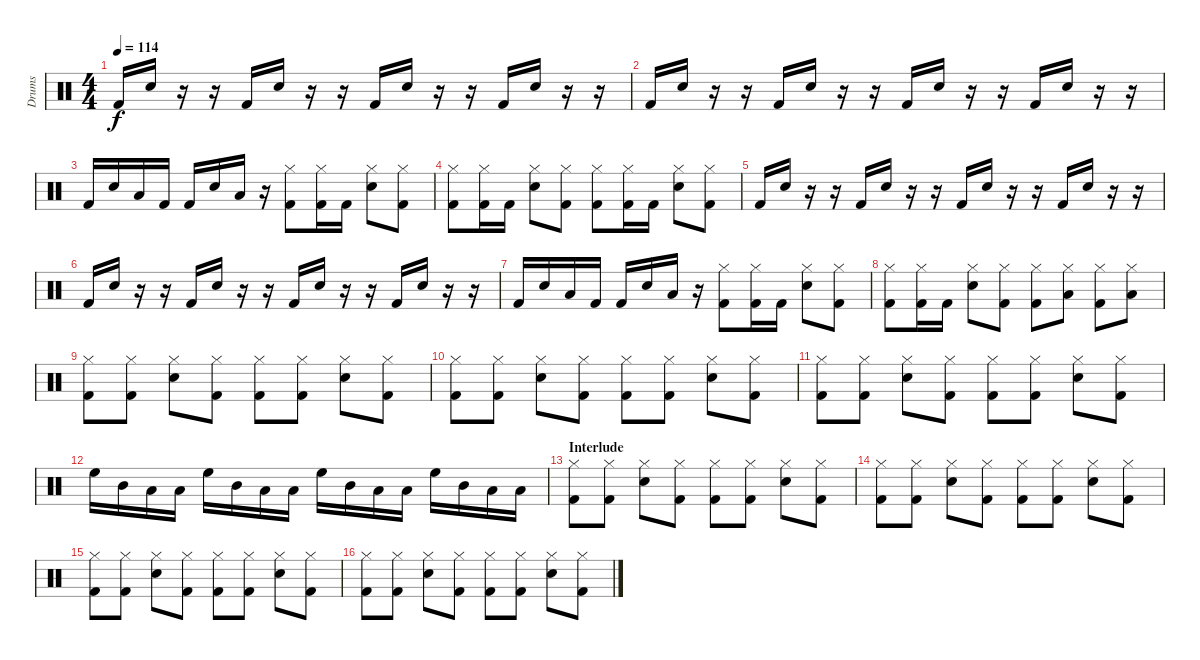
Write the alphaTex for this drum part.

\track ("Drums" "Drums") {instrument percussion}
\staff {score}
\articulation defaults
\ts (4 4)
\tempo 114
\clef neutral
\ks c "Kick (hit) 2".16{dy f} "Snare (hit) 2".16
r.16 r.16 "Kick (hit) 2".16 "Snare (hit) 2".16 r.16 r.16 "Kick (hit) 2".16 "Snare (hit) 2".16 r.16 r.16 "Kick (hit) 2".16 "Snare (hit) 2".16 r.16 r.16 |
"Kick (hit) 2".16 "Snare (hit) 2".16 r.16 r.16 "Kick (hit) 2".16 "Snare (hit) 2".16 r.16 r.16 "Kick (hit) 2".16 "Snare (hit) 2".16 r.16 r.16 "Kick (hit) 2".16 "Snare (hit) 2".16 r.16 r.16 |
"Kick (hit) 2".16 "Snare (hit) 2".16 "Low Tom (hit)".16 "Kick (hit) 2".16 "Kick (hit) 2".16 "Snare (hit) 2".16 "Low Floor Tom (hit)".16 r.16 ("Hi-Hat (closed)" "Kick (hit) 2").8 ("Hi-Hat (closed)" "Kick (hit) 2").16 "Kick (hit) 2".16 ("Hi-Hat (closed)" "Snare (hit) 2").8 ("Hi-Hat (closed)" "Kick (hit) 2").8 |
("Hi-Hat (closed)" "Kick (hit) 2").8 ("Hi-Hat (closed)" "Kick (hit) 2").16 "Kick (hit) 2".16 ("Hi-Hat (closed)" "Snare (hit) 2").8 ("Hi-Hat (closed)" "Kick (hit) 2").8 ("Hi-Hat (closed)" "Kick (hit) 2").8 ("Hi-Hat (closed)" "Kick (hit) 2").16 "Kick (hit) 2".16 ("Hi-Hat (closed)" "Snare (hit) 2").8 ("Hi-Hat (closed)" "Kick (hit) 2").8 |
"Kick (hit) 2".16 "Snare (hit) 2".16 r.16 r.16 "Kick (hit) 2".16 "Snare (hit) 2".16 r.16 r.16 "Kick (hit) 2".16 "Snare (hit) 2".16 r.16 r.16 "Kick (hit) 2".16 "Snare (hit) 2".16 r.16 r.16 |
"Kick (hit) 2".16 "Snare (hit) 2".16 r.16 r.16 "Kick (hit) 2".16 "Snare (hit) 2".16 r.16 r.16 "Kick (hit) 2".16 "Snare (hit) 2".16 r.16 r.16 "Kick (hit) 2".16 "Snare (hit) 2".16 r.16 r.16 |
"Kick (hit) 2".16 "Snare (hit) 2".16 "Low Tom (hit)".16 "Kick (hit) 2".16 "Kick (hit) 2".16 "Snare (hit) 2".16 "Low Floor Tom (hit)".16 r.16 ("Hi-Hat (closed)" "Kick (hit) 2").8 ("Hi-Hat (closed)" "Kick (hit) 2").16 "Kick (hit) 2".16 ("Hi-Hat (closed)" "Snare (hit) 2").8 ("Hi-Hat (closed)" "Kick (hit) 2").8 |
("Hi-Hat (closed)" "Kick (hit) 2").8 ("Hi-Hat (closed)" "Kick (hit) 2").16 "Kick (hit) 2".16 ("Hi-Hat (closed)" "Snare (hit) 2").8 ("Hi-Hat (closed)" "Kick (hit) 2").8 ("Hi-Hat (closed)" "Kick (hit) 2").8 ("Hi-Hat (closed)" "Low Tom (hit)").8 ("Hi-Hat (closed)" "Kick (hit) 2").8 ("Hi-Hat (closed)" "Low Floor Tom (hit)").8 |
("Hi-Hat (closed)" "Kick (hit) 2").8 ("Hi-Hat (closed)" "Kick (hit) 2").8 ("Hi-Hat (closed)" "Snare (hit) 2").8 ("Hi-Hat (closed)" "Kick (hit) 2").8 ("Hi-Hat (closed)" "Kick (hit) 2").8 ("Hi-Hat (closed)" "Kick (hit) 2").8 ("Hi-Hat (closed)" "Snare (hit) 2").8 ("Hi-Hat (closed)" "Kick (hit) 2").8 |
("Hi-Hat (closed)" "Kick (hit) 2").8 ("Hi-Hat (closed)" "Kick (hit) 2").8 ("Hi-Hat (closed)" "Snare (hit) 2").8 ("Hi-Hat (closed)" "Kick (hit) 2").8 ("Hi-Hat (closed)" "Kick (hit) 2").8 ("Hi-Hat (closed)" "Kick (hit) 2").8 ("Hi-Hat (closed)" "Snare (hit) 2").8 ("Hi-Hat (closed)" "Kick (hit) 2").8 |
("Hi-Hat (closed)" "Kick (hit) 2").8 ("Hi-Hat (closed)" "Kick (hit) 2").8 ("Hi-Hat (closed)" "Snare (hit) 2").8 ("Hi-Hat (closed)" "Kick (hit) 2").8 ("Hi-Hat (closed)" "Kick (hit) 2").8 ("Hi-Hat (closed)" "Kick (hit) 2").8 ("Hi-Hat (closed)" "Snare (hit) 2").8 ("Hi-Hat (closed)" "Kick (hit) 2").8 |
"High Floor Tom (hit)".16 "Mid Tom (hit)".16 "Low Tom (hit)".16 "Low Floor Tom (hit)".16 "High Floor Tom (hit)".16 "Mid Tom (hit)".16 "Low Tom (hit)".16 "Low Floor Tom (hit)".16 "High Floor Tom (hit)".16 "Mid Tom (hit)".16 "Low Tom (hit)".16 "Low Floor Tom (hit)".16 "High Floor Tom (hit)".16 "Mid Tom (hit)".16 "Low Tom (hit)".16 "Low Floor Tom (hit)".16 |
\section ("" "Interlude")
("Hi-Hat (closed)" "Kick (hit) 2").8 ("Hi-Hat (closed)" "Kick (hit) 2").8 ("Hi-Hat (closed)" "Snare (hit) 2").8 ("Hi-Hat (closed)" "Kick (hit) 2").8 ("Hi-Hat (closed)" "Kick (hit) 2").8 ("Hi-Hat (closed)" "Kick (hit) 2").8 ("Hi-Hat (closed)" "Snare (hit) 2").8 ("Hi-Hat (closed)" "Kick (hit) 2").8 |
("Hi-Hat (closed)" "Kick (hit) 2").8 ("Hi-Hat (closed)" "Kick (hit) 2").8 ("Hi-Hat (closed)" "Snare (hit) 2").8 ("Hi-Hat (closed)" "Kick (hit) 2").8 ("Hi-Hat (closed)" "Kick (hit) 2").8 ("Hi-Hat (closed)" "Kick (hit) 2").8 ("Hi-Hat (closed)" "Snare (hit) 2").8 ("Hi-Hat (closed)" "Kick (hit) 2").8 |
("Hi-Hat (closed)" "Kick (hit) 2").8 ("Hi-Hat (closed)" "Kick (hit) 2").8 ("Hi-Hat (closed)" "Snare (hit) 2").8 ("Hi-Hat (closed)" "Kick (hit) 2").8 ("Hi-Hat (closed)" "Kick (hit) 2").8 ("Hi-Hat (closed)" "Kick (hit) 2").8 ("Hi-Hat (closed)" "Snare (hit) 2").8 ("Hi-Hat (closed)" "Kick (hit) 2").8 |
("Hi-Hat (closed)" "Kick (hit) 2").8 ("Hi-Hat (closed)" "Kick (hit) 2").8 ("Hi-Hat (closed)" "Snare (hit) 2").8 ("Hi-Hat (closed)" "Kick (hit) 2").8 ("Hi-Hat (closed)" "Kick (hit) 2").8 ("Hi-Hat (closed)" "Kick (hit) 2").8 ("Hi-Hat (closed)" "Snare (hit) 2").8 ("Hi-Hat (closed)" "Kick (hit) 2").8
